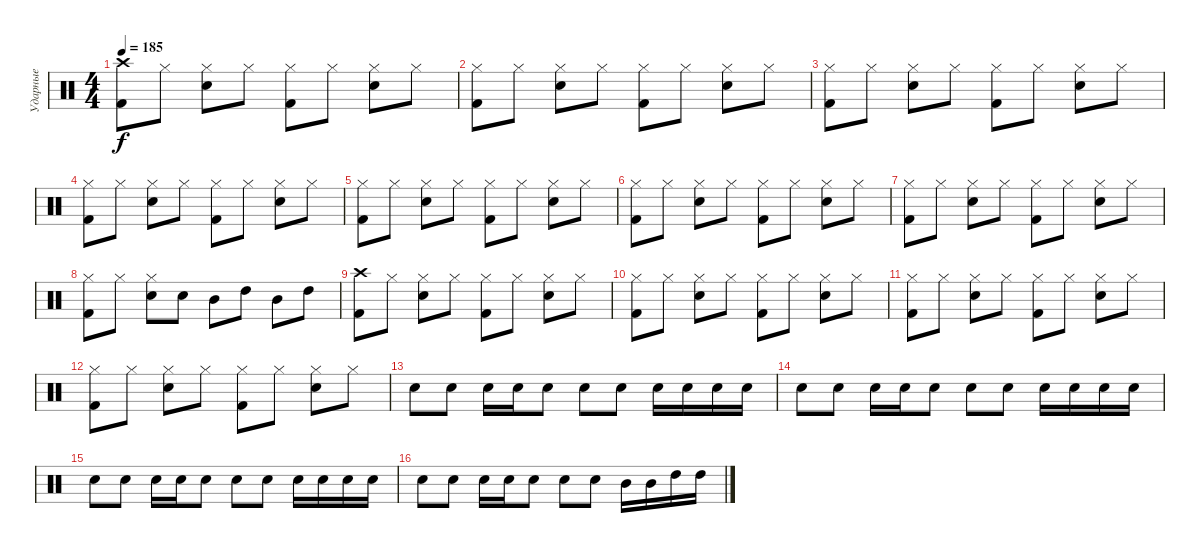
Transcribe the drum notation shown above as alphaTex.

\track ("Ударные" "Ударные") {instrument percussion}
\staff {score}
\articulation defaults
\ts (4 4)
\tempo 185
\clef neutral
\ks c
("Kick (hit) 2" "Crash high (hit)").8{dy f} "Hi-Hat (closed)".8 ("Electric Snare (hit)" "Hi-Hat (closed)").8 "Hi-Hat (closed)".8 ("Kick (hit) 2" "Hi-Hat (closed)").8 "Hi-Hat (closed)".8 ("Electric Snare (hit)" "Hi-Hat (closed)").8 "Hi-Hat (closed)".8 |
("Kick (hit) 2" "Hi-Hat (closed)").8 "Hi-Hat (closed)".8 ("Electric Snare (hit)" "Hi-Hat (closed)").8 "Hi-Hat (closed)".8 ("Kick (hit) 2" "Hi-Hat (closed)").8 "Hi-Hat (closed)".8 ("Electric Snare (hit)" "Hi-Hat (closed)").8 "Hi-Hat (closed)".8 |
("Kick (hit) 2" "Hi-Hat (closed)").8 "Hi-Hat (closed)".8 ("Electric Snare (hit)" "Hi-Hat (closed)").8 "Hi-Hat (closed)".8 ("Kick (hit) 2" "Hi-Hat (closed)").8 "Hi-Hat (closed)".8 ("Electric Snare (hit)" "Hi-Hat (closed)").8 "Hi-Hat (closed)".8 |
("Kick (hit) 2" "Hi-Hat (closed)").8 "Hi-Hat (closed)".8 ("Electric Snare (hit)" "Hi-Hat (closed)").8 "Hi-Hat (closed)".8 ("Kick (hit) 2" "Hi-Hat (closed)").8 "Hi-Hat (closed)".8 ("Electric Snare (hit)" "Hi-Hat (closed)").8 "Hi-Hat (closed)".8 |
("Kick (hit) 2" "Hi-Hat (closed)").8 "Hi-Hat (closed)".8 ("Electric Snare (hit)" "Hi-Hat (closed)").8 "Hi-Hat (closed)".8 ("Kick (hit) 2" "Hi-Hat (closed)").8 "Hi-Hat (closed)".8 ("Electric Snare (hit)" "Hi-Hat (closed)").8 "Hi-Hat (closed)".8 |
("Kick (hit) 2" "Hi-Hat (closed)").8 "Hi-Hat (closed)".8 ("Electric Snare (hit)" "Hi-Hat (closed)").8 "Hi-Hat (closed)".8 ("Kick (hit) 2" "Hi-Hat (closed)").8 "Hi-Hat (closed)".8 ("Electric Snare (hit)" "Hi-Hat (closed)").8 "Hi-Hat (closed)".8 |
("Kick (hit) 2" "Hi-Hat (closed)").8 "Hi-Hat (closed)".8 ("Electric Snare (hit)" "Hi-Hat (closed)").8 "Hi-Hat (closed)".8 ("Kick (hit) 2" "Hi-Hat (closed)").8 "Hi-Hat (closed)".8 ("Electric Snare (hit)" "Hi-Hat (closed)").8 "Hi-Hat (closed)".8 |
("Kick (hit) 2" "Hi-Hat (closed)").8 "Hi-Hat (closed)".8 ("Electric Snare (hit)" "Hi-Hat (closed)").8 "Electric Snare (hit)".8 "Mid Tom (hit)".8 "High Tom (hit)".8 "Mid Tom (hit)".8 "High Tom (hit)".8 |
("Kick (hit) 2" "Crash high (hit)").8 "Hi-Hat (closed)".8 ("Electric Snare (hit)" "Hi-Hat (closed)").8 "Hi-Hat (closed)".8 ("Kick (hit) 2" "Hi-Hat (closed)").8 "Hi-Hat (closed)".8 ("Electric Snare (hit)" "Hi-Hat (closed)").8 "Hi-Hat (closed)".8 |
("Kick (hit) 2" "Hi-Hat (closed)").8 "Hi-Hat (closed)".8 ("Electric Snare (hit)" "Hi-Hat (closed)").8 "Hi-Hat (closed)".8 ("Kick (hit) 2" "Hi-Hat (closed)").8 "Hi-Hat (closed)".8 ("Electric Snare (hit)" "Hi-Hat (closed)").8 "Hi-Hat (closed)".8 |
("Kick (hit) 2" "Hi-Hat (closed)").8 "Hi-Hat (closed)".8 ("Electric Snare (hit)" "Hi-Hat (closed)").8 "Hi-Hat (closed)".8 ("Kick (hit) 2" "Hi-Hat (closed)").8 "Hi-Hat (closed)".8 ("Electric Snare (hit)" "Hi-Hat (closed)").8 "Hi-Hat (closed)".8 |
("Kick (hit) 2" "Hi-Hat (closed)").8 "Hi-Hat (closed)".8 ("Electric Snare (hit)" "Hi-Hat (closed)").8 "Hi-Hat (closed)".8 ("Kick (hit) 2" "Hi-Hat (closed)").8 "Hi-Hat (closed)".8 ("Electric Snare (hit)" "Hi-Hat (closed)").8 "Hi-Hat (closed)".8 |
"Electric Snare (hit)".8 "Electric Snare (hit)".8 "Electric Snare (hit)".16 "Electric Snare (hit)".16 "Electric Snare (hit)".8 "Electric Snare (hit)".8 "Electric Snare (hit)".8 "Electric Snare (hit)".16 "Electric Snare (hit)".16 "Electric Snare (hit)".16 "Electric Snare (hit)".16 |
"Electric Snare (hit)".8 "Electric Snare (hit)".8 "Electric Snare (hit)".16 "Electric Snare (hit)".16 "Electric Snare (hit)".8 "Electric Snare (hit)".8 "Electric Snare (hit)".8 "Electric Snare (hit)".16 "Electric Snare (hit)".16 "Electric Snare (hit)".16 "Electric Snare (hit)".16 |
"Electric Snare (hit)".8 "Electric Snare (hit)".8 "Electric Snare (hit)".16 "Electric Snare (hit)".16 "Electric Snare (hit)".8 "Electric Snare (hit)".8 "Electric Snare (hit)".8 "Electric Snare (hit)".16 "Electric Snare (hit)".16 "Electric Snare (hit)".16 "Electric Snare (hit)".16 |
"Electric Snare (hit)".8 "Electric Snare (hit)".8 "Electric Snare (hit)".16 "Electric Snare (hit)".16 "Electric Snare (hit)".8 "Electric Snare (hit)".8 "Electric Snare (hit)".8 "Mid Tom (hit)".16 "Mid Tom (hit)".16 "High Tom (hit)".16 "High Tom (hit)".16
